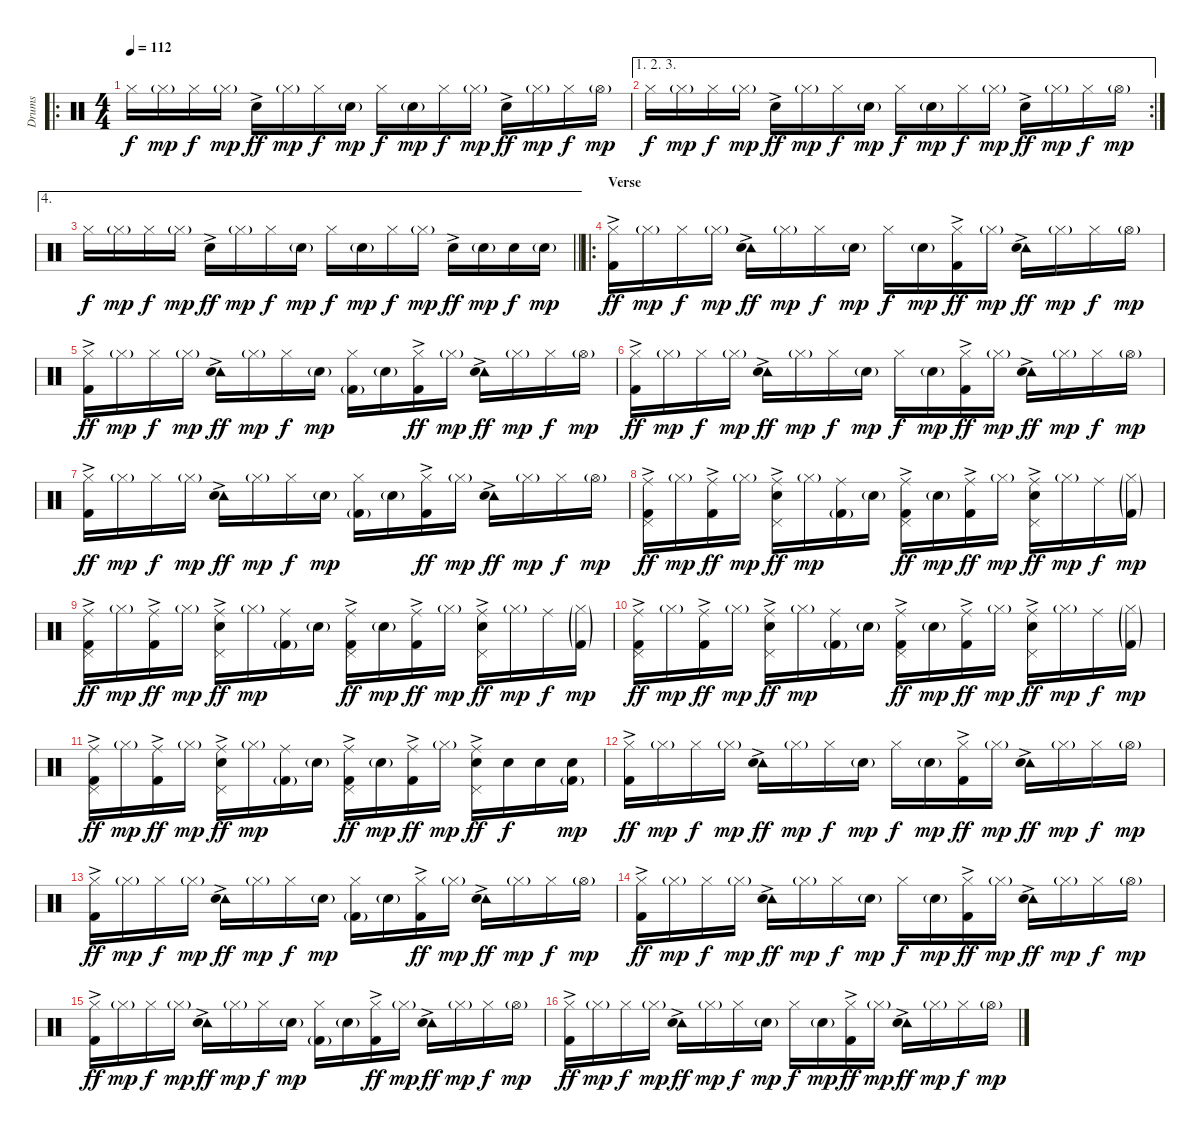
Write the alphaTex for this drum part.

\track ("Drums" "Drums") {instrument percussion}
\staff {score}
\articulation defaults
\ro
\ts (4 4)
\tempo 112
\clef neutral
\ks c "Hi-Hat (closed)".16{dy f} "Hi-Hat (closed)"{g}.16{dy mp} "Hi-Hat (closed)".16{dy f} "Hi-Hat (closed)"{g}.16{dy mp} "Snare (hit) 2"{ac}.16{dy ff} "Hi-Hat (closed)"{g}.16{dy mp} "Hi-Hat (closed)".16{dy f} "Snare (hit) 2"{g}.16{dy mp} "Hi-Hat (closed)".16{dy f} "Snare (hit) 2"{g}.16{dy mp} "Hi-Hat (closed)".16{dy f} "Hi-Hat (closed)"{g}.16{dy mp} "Snare (hit) 2"{ac}.16{dy ff} "Hi-Hat (closed)"{g}.16{dy mp} "Hi-Hat (closed)".16{dy f} "Hi-Hat (open)"{g}.16{dy mp}
|
\ae (1 2 3)
\rc 2 "Hi-Hat (closed)".16{dy f} "Hi-Hat (closed)"{g}.16{dy mp} "Hi-Hat (closed)".16{dy f} "Hi-Hat (closed)"{g}.16{dy mp} "Snare (hit) 2"{ac}.16{dy ff} "Hi-Hat (closed)"{g}.16{dy mp} "Hi-Hat (closed)".16{dy f} "Snare (hit) 2"{g}.16{dy mp} "Hi-Hat (closed)".16{dy f} "Snare (hit) 2"{g}.16{dy mp} "Hi-Hat (closed)".16{dy f} "Hi-Hat (closed)"{g}.16{dy mp} "Snare (hit) 2"{ac}.16{dy ff} "Hi-Hat (closed)"{g}.16{dy mp} "Hi-Hat (closed)".16{dy f} "Hi-Hat (open)"{g}.16{dy mp}
|
\ae 4
\barLineRight lightlight "Hi-Hat (closed)".16{dy f} "Hi-Hat (closed)"{g}.16{dy mp} "Hi-Hat (closed)".16{dy f} "Hi-Hat (closed)"{g}.16{dy mp} "Snare (hit) 2"{ac}.16{dy ff} "Hi-Hat (closed)"{g}.16{dy mp} "Hi-Hat (closed)".16{dy f} "Snare (hit) 2"{g}.16{dy mp} "Hi-Hat (closed)".16{dy f} "Snare (hit) 2"{g}.16{dy mp} "Hi-Hat (closed)".16{dy f} "Hi-Hat (closed)"{g}.16{dy mp} "Snare (hit) 2"{ac}.16{dy ff} "Snare (hit) 2"{g}.16{dy mp} "Snare (hit) 2".16{dy f} "Snare (hit) 2"{g}.16{dy mp}
|
\ro
\section ("" "Verse")
("Hi-Hat (closed)" "Kick (hit) 2"{ac}).16{dy ff} "Hi-Hat (closed)"{g}.16{dy mp} "Hi-Hat (closed)".16{dy f} "Hi-Hat (closed)"{g}.16{dy mp} ("Tambourine (hit)" "Snare (hit) 2"{ac}).16{dy ff} "Hi-Hat (closed)"{g}.16{dy mp} "Hi-Hat (closed)".16{dy f} "Snare (hit) 2"{g}.16{dy mp} "Hi-Hat (closed)".16{dy f} "Snare (hit) 2"{g}.16{dy mp} ("Hi-Hat (closed)" "Kick (hit) 2"{ac}).16{dy ff} "Hi-Hat (closed)"{g}.16{dy mp} ("Tambourine (hit)" "Snare (hit) 2"{ac}).16{dy ff} "Hi-Hat (closed)"{g}.16{dy mp} "Hi-Hat (closed)".16{dy f} "Hi-Hat (open)"{g}.16{dy mp} |
("Hi-Hat (closed)" "Kick (hit) 2"{ac}).16{dy ff} "Hi-Hat (closed)"{g}.16{dy mp} "Hi-Hat (closed)".16{dy f} "Hi-Hat (closed)"{g}.16{dy mp} ("Tambourine (hit)" "Snare (hit) 2"{ac}).16{dy ff} "Hi-Hat (closed)"{g}.16{dy mp} "Hi-Hat (closed)".16{dy f} "Snare (hit) 2"{g}.16{dy mp} ("Hi-Hat (closed)" "Kick (hit) 2"{g}).16 "Snare (hit) 2"{g}.16 ("Hi-Hat (closed)" "Kick (hit) 2"{ac}).16{dy ff} "Hi-Hat (closed)"{g}.16{dy mp} ("Tambourine (hit)" "Snare (hit) 2"{ac}).16{dy ff} "Hi-Hat (closed)"{g}.16{dy mp} "Hi-Hat (closed)".16{dy f} "Hi-Hat (open)"{g}.16{dy mp} |
("Hi-Hat (closed)" "Kick (hit) 2"{ac}).16{dy ff} "Hi-Hat (closed)"{g}.16{dy mp} "Hi-Hat (closed)".16{dy f} "Hi-Hat (closed)"{g}.16{dy mp} ("Tambourine (hit)" "Snare (hit) 2"{ac}).16{dy ff} "Hi-Hat (closed)"{g}.16{dy mp} "Hi-Hat (closed)".16{dy f} "Snare (hit) 2"{g}.16{dy mp} "Hi-Hat (closed)".16{dy f} "Snare (hit) 2"{g}.16{dy mp} ("Hi-Hat (closed)" "Kick (hit) 2"{ac}).16{dy ff} "Hi-Hat (closed)"{g}.16{dy mp} ("Tambourine (hit)" "Snare (hit) 2"{ac}).16{dy ff} "Hi-Hat (closed)"{g}.16{dy mp} "Hi-Hat (closed)".16{dy f} "Hi-Hat (open)"{g}.16{dy mp} |
("Hi-Hat (closed)" "Kick (hit) 2"{ac}).16{dy ff} "Hi-Hat (closed)"{g}.16{dy mp} "Hi-Hat (closed)".16{dy f} "Hi-Hat (closed)"{g}.16{dy mp} ("Tambourine (hit)" "Snare (hit) 2"{ac}).16{dy ff} "Hi-Hat (closed)"{g}.16{dy mp} "Hi-Hat (closed)".16{dy f} "Snare (hit) 2"{g}.16{dy mp} ("Hi-Hat (closed)" "Kick (hit) 2"{g}).16 "Snare (hit) 2"{g}.16 ("Hi-Hat (closed)" "Kick (hit) 2"{ac}).16{dy ff} "Hi-Hat (closed)"{g}.16{dy mp} ("Tambourine (hit)" "Snare (hit) 2"{ac}).16{dy ff} "Hi-Hat (closed)"{g}.16{dy mp} "Hi-Hat (closed)".16{dy f} "Hi-Hat (open)"{g}.16{dy mp} |
("Pedal Hi-Hat (hit)" "Ride (middle)" "Kick (hit) 2"{ac}).16{dy ff} "Hi-Hat (closed)"{g}.16{dy mp} ("Ride (middle)" "Kick (hit) 2"{ac}).16{dy ff} "Hi-Hat (closed)"{g}.16{dy mp} ("Pedal Hi-Hat (hit)" "Ride (middle)" "Snare (hit) 2"{ac}).16{dy ff} "Hi-Hat (closed)"{g}.16{dy mp} ("Ride (middle)" "Kick (hit) 2"{g}).16 "Snare (hit) 2"{g}.16 ("Pedal Hi-Hat (hit)" "Ride (middle)" "Kick (hit) 2"{ac}).16{dy ff} "Snare (hit) 2"{g}.16{dy mp} ("Ride (middle)" "Kick (hit) 2"{ac}).16{dy ff} "Hi-Hat (closed)"{g}.16{dy mp} ("Pedal Hi-Hat (hit)" "Ride (middle)" "Snare (hit) 2"{ac}).16{dy ff} "Hi-Hat (closed)"{g}.16{dy mp} "Ride (middle)".16{dy f} ("Hi-Hat (closed)"{g} "Kick (hit) 2"{g}).16{dy mp} |
("Pedal Hi-Hat (hit)" "Ride (middle)" "Kick (hit) 2"{ac}).16{dy ff} "Hi-Hat (closed)"{g}.16{dy mp} ("Ride (middle)" "Kick (hit) 2"{ac}).16{dy ff} "Hi-Hat (closed)"{g}.16{dy mp} ("Pedal Hi-Hat (hit)" "Ride (middle)" "Snare (hit) 2"{ac}).16{dy ff} "Hi-Hat (closed)"{g}.16{dy mp} ("Ride (middle)" "Kick (hit) 2"{g}).16 "Snare (hit) 2"{g}.16 ("Pedal Hi-Hat (hit)" "Ride (middle)" "Kick (hit) 2"{ac}).16{dy ff} "Snare (hit) 2"{g}.16{dy mp} ("Ride (middle)" "Kick (hit) 2"{ac}).16{dy ff} "Hi-Hat (closed)"{g}.16{dy mp} ("Pedal Hi-Hat (hit)" "Ride (middle)" "Snare (hit) 2"{ac}).16{dy ff} "Hi-Hat (closed)"{g}.16{dy mp} "Ride (middle)".16{dy f} ("Hi-Hat (closed)"{g} "Kick (hit) 2"{g}).16{dy mp} |
("Pedal Hi-Hat (hit)" "Ride (middle)" "Kick (hit) 2"{ac}).16{dy ff} "Hi-Hat (closed)"{g}.16{dy mp} ("Ride (middle)" "Kick (hit) 2"{ac}).16{dy ff} "Hi-Hat (closed)"{g}.16{dy mp} ("Pedal Hi-Hat (hit)" "Ride (middle)" "Snare (hit) 2"{ac}).16{dy ff} "Hi-Hat (closed)"{g}.16{dy mp} ("Ride (middle)" "Kick (hit) 2"{g}).16 "Snare (hit) 2"{g}.16 ("Pedal Hi-Hat (hit)" "Ride (middle)" "Kick (hit) 2"{ac}).16{dy ff} "Snare (hit) 2"{g}.16{dy mp} ("Ride (middle)" "Kick (hit) 2"{ac}).16{dy ff} "Hi-Hat (closed)"{g}.16{dy mp} ("Pedal Hi-Hat (hit)" "Ride (middle)" "Snare (hit) 2"{ac}).16{dy ff} "Hi-Hat (closed)"{g}.16{dy mp} "Ride (middle)".16{dy f} ("Hi-Hat (closed)"{g} "Kick (hit) 2"{g}).16{dy mp} |
("Pedal Hi-Hat (hit)" "Ride (middle)" "Kick (hit) 2"{ac}).16{dy ff} "Hi-Hat (closed)"{g}.16{dy mp} ("Ride (middle)" "Kick (hit) 2"{ac}).16{dy ff} "Hi-Hat (closed)"{g}.16{dy mp} ("Pedal Hi-Hat (hit)" "Ride (middle)" "Snare (hit) 2"{ac}).16{dy ff} "Hi-Hat (closed)"{g}.16{dy mp} ("Ride (middle)" "Kick (hit) 2"{g}).16 "Snare (hit) 2"{g}.16 ("Pedal Hi-Hat (hit)" "Ride (middle)" "Kick (hit) 2"{ac}).16{dy ff} "Snare (hit) 2"{g}.16{dy mp} ("Ride (middle)" "Kick (hit) 2"{ac}).16{dy ff} "Hi-Hat (closed)"{g}.16{dy mp} ("Pedal Hi-Hat (hit)" "Ride (middle)" "Snare (hit) 2"{ac}).16{dy ff} "Snare (hit) 2".16{dy f} "Snare (hit) 2".16 ("Snare (hit) 2" "Kick (hit) 2"{g}).16{dy mp} |
("Hi-Hat (closed)" "Kick (hit) 2"{ac}).16{dy ff} "Hi-Hat (closed)"{g}.16{dy mp} "Hi-Hat (closed)".16{dy f} "Hi-Hat (closed)"{g}.16{dy mp} ("Tambourine (hit)" "Snare (hit) 2"{ac}).16{dy ff} "Hi-Hat (closed)"{g}.16{dy mp} "Hi-Hat (closed)".16{dy f} "Snare (hit) 2"{g}.16{dy mp} "Hi-Hat (closed)".16{dy f} "Snare (hit) 2"{g}.16{dy mp} ("Hi-Hat (closed)" "Kick (hit) 2"{ac}).16{dy ff} "Hi-Hat (closed)"{g}.16{dy mp} ("Tambourine (hit)" "Snare (hit) 2"{ac}).16{dy ff} "Hi-Hat (closed)"{g}.16{dy mp} "Hi-Hat (closed)".16{dy f} "Hi-Hat (open)"{g}.16{dy mp} |
("Hi-Hat (closed)" "Kick (hit) 2"{ac}).16{dy ff} "Hi-Hat (closed)"{g}.16{dy mp} "Hi-Hat (closed)".16{dy f} "Hi-Hat (closed)"{g}.16{dy mp} ("Tambourine (hit)" "Snare (hit) 2"{ac}).16{dy ff} "Hi-Hat (closed)"{g}.16{dy mp} "Hi-Hat (closed)".16{dy f} "Snare (hit) 2"{g}.16{dy mp} ("Hi-Hat (closed)" "Kick (hit) 2"{g}).16 "Snare (hit) 2"{g}.16 ("Hi-Hat (closed)" "Kick (hit) 2"{ac}).16{dy ff} "Hi-Hat (closed)"{g}.16{dy mp} ("Tambourine (hit)" "Snare (hit) 2"{ac}).16{dy ff} "Hi-Hat (closed)"{g}.16{dy mp} "Hi-Hat (closed)".16{dy f} "Hi-Hat (open)"{g}.16{dy mp} |
("Hi-Hat (closed)" "Kick (hit) 2"{ac}).16{dy ff} "Hi-Hat (closed)"{g}.16{dy mp} "Hi-Hat (closed)".16{dy f} "Hi-Hat (closed)"{g}.16{dy mp} ("Tambourine (hit)" "Snare (hit) 2"{ac}).16{dy ff} "Hi-Hat (closed)"{g}.16{dy mp} "Hi-Hat (closed)".16{dy f} "Snare (hit) 2"{g}.16{dy mp} "Hi-Hat (closed)".16{dy f} "Snare (hit) 2"{g}.16{dy mp} ("Hi-Hat (closed)" "Kick (hit) 2"{ac}).16{dy ff} "Hi-Hat (closed)"{g}.16{dy mp} ("Tambourine (hit)" "Snare (hit) 2"{ac}).16{dy ff} "Hi-Hat (closed)"{g}.16{dy mp} "Hi-Hat (closed)".16{dy f} "Hi-Hat (open)"{g}.16{dy mp} |
("Hi-Hat (closed)" "Kick (hit) 2"{ac}).16{dy ff} "Hi-Hat (closed)"{g}.16{dy mp} "Hi-Hat (closed)".16{dy f} "Hi-Hat (closed)"{g}.16{dy mp} ("Tambourine (hit)" "Snare (hit) 2"{ac}).16{dy ff} "Hi-Hat (closed)"{g}.16{dy mp} "Hi-Hat (closed)".16{dy f} "Snare (hit) 2"{g}.16{dy mp} ("Hi-Hat (closed)" "Kick (hit) 2"{g}).16 "Snare (hit) 2"{g}.16 ("Hi-Hat (closed)" "Kick (hit) 2"{ac}).16{dy ff} "Hi-Hat (closed)"{g}.16{dy mp} ("Tambourine (hit)" "Snare (hit) 2"{ac}).16{dy ff} "Hi-Hat (closed)"{g}.16{dy mp} "Hi-Hat (closed)".16{dy f} "Hi-Hat (open)"{g}.16{dy mp} |
("Hi-Hat (closed)" "Kick (hit) 2"{ac}).16{dy ff} "Hi-Hat (closed)"{g}.16{dy mp} "Hi-Hat (closed)".16{dy f} "Hi-Hat (closed)"{g}.16{dy mp} ("Tambourine (hit)" "Snare (hit) 2"{ac}).16{dy ff} "Hi-Hat (closed)"{g}.16{dy mp} "Hi-Hat (closed)".16{dy f} "Snare (hit) 2"{g}.16{dy mp} "Hi-Hat (closed)".16{dy f} "Snare (hit) 2"{g}.16{dy mp} ("Hi-Hat (closed)" "Kick (hit) 2"{ac}).16{dy ff} "Hi-Hat (closed)"{g}.16{dy mp} ("Tambourine (hit)" "Snare (hit) 2"{ac}).16{dy ff} "Hi-Hat (closed)"{g}.16{dy mp} "Hi-Hat (closed)".16{dy f} "Hi-Hat (open)"{g}.16{dy mp}
